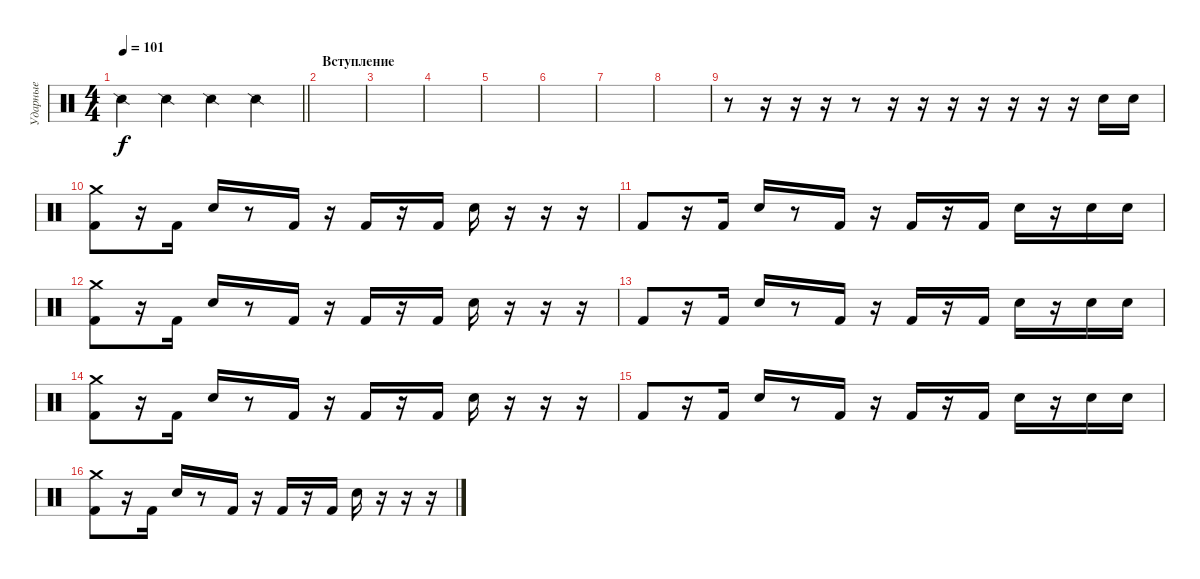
\track ("Ударные" "Ударные") {instrument percussion}
\staff {score}
\articulation defaults
\ts (4 4)
\section ("" "")
\tempo 101
\clef neutral
\barLineRight lightlight
\ks c "Snare (side stick) 2".4{dy f} "Snare (side stick) 2".4 "Snare (side stick) 2".4 "Snare (side stick) 2".4
|
\section ("" "Вступление")
|
|
|
|
|
|
|
r.8 r.16 r.16 r.16 r.8 r.16 r.16 r.16 r.16 r.16 r.16 r.16 "Snare (hit) 2".16 "Snare (hit) 2".16 |
("Crash medium (hit)" "Kick (hit) 2").8 r.16 "Kick (hit) 2".16 "Snare (hit) 2".16 r.8 "Kick (hit) 2".16 r.16 "Kick (hit) 2".16 r.16 "Kick (hit) 2".16 "Snare (hit) 2".16 r.16 r.16 r.16 |
"Kick (hit) 2".8 r.16 "Kick (hit) 2".16 "Snare (hit) 2".16 r.8 "Kick (hit) 2".16 r.16 "Kick (hit) 2".16 r.16 "Kick (hit) 2".16 "Snare (hit) 2".16 r.16 "Snare (hit) 2".16 "Snare (hit) 2".16 |
("Crash medium (hit)" "Kick (hit) 2").8 r.16 "Kick (hit) 2".16 "Snare (hit) 2".16 r.8 "Kick (hit) 2".16 r.16 "Kick (hit) 2".16 r.16 "Kick (hit) 2".16 "Snare (hit) 2".16 r.16 r.16 r.16 |
"Kick (hit) 2".8 r.16 "Kick (hit) 2".16 "Snare (hit) 2".16 r.8 "Kick (hit) 2".16 r.16 "Kick (hit) 2".16 r.16 "Kick (hit) 2".16 "Snare (hit) 2".16 r.16 "Snare (hit) 2".16 "Snare (hit) 2".16 |
("Crash medium (hit)" "Kick (hit) 2").8 r.16 "Kick (hit) 2".16 "Snare (hit) 2".16 r.8 "Kick (hit) 2".16 r.16 "Kick (hit) 2".16 r.16 "Kick (hit) 2".16 "Snare (hit) 2".16 r.16 r.16 r.16 |
"Kick (hit) 2".8 r.16 "Kick (hit) 2".16 "Snare (hit) 2".16 r.8 "Kick (hit) 2".16 r.16 "Kick (hit) 2".16 r.16 "Kick (hit) 2".16 "Snare (hit) 2".16 r.16 "Snare (hit) 2".16 "Snare (hit) 2".16 |
("Crash medium (hit)" "Kick (hit) 2").8 r.16 "Kick (hit) 2".16 "Snare (hit) 2".16 r.8 "Kick (hit) 2".16 r.16 "Kick (hit) 2".16 r.16 "Kick (hit) 2".16 "Snare (hit) 2".16 r.16 r.16 r.16
